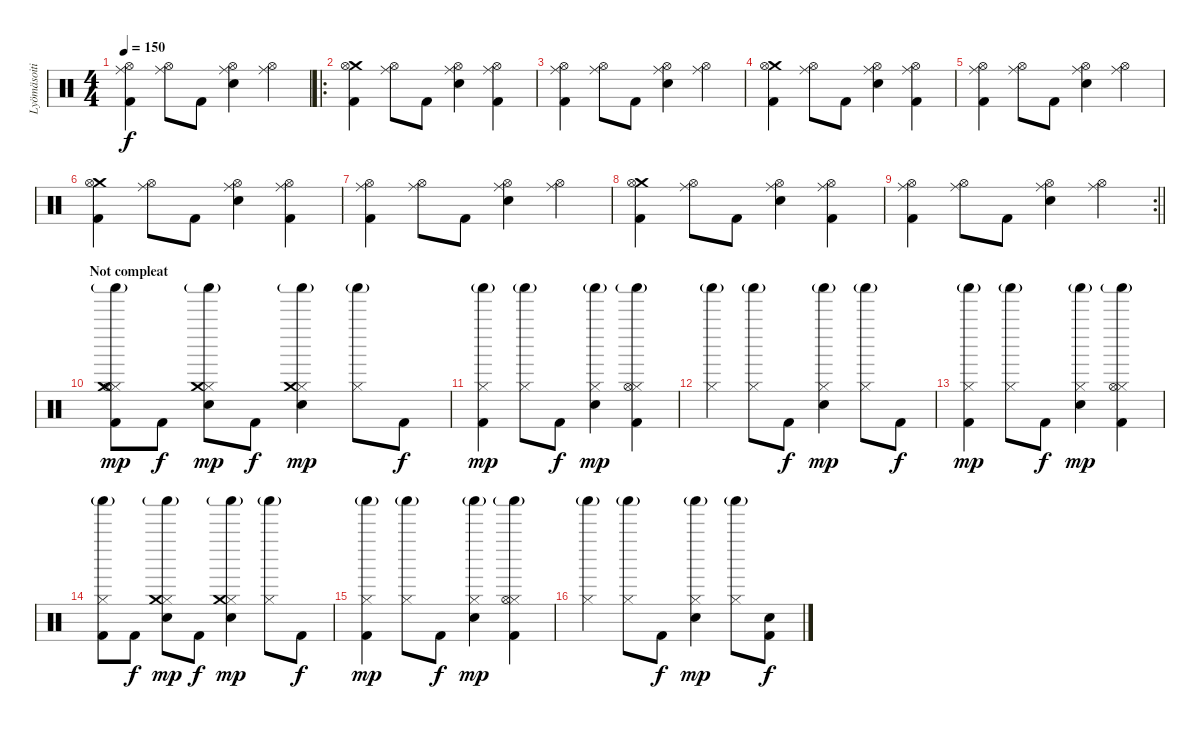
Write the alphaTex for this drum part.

\track ("Lyömäsoitin" "Lyömäsoiti") {instrument percussion}
\staff
\articulation defaults
\ts (4 4)
\tempo 150
\clef neutral
\ks c
("Ride (middle)" "Hi-Hat (open)" "Kick (hit) 2").4{dy f} ("Ride (middle)" "Hi-Hat (open)").8 "Kick (hit) 2".8 ("Ride (middle)" "Hi-Hat (open)" "Snare (hit) 2").4 ("Ride (middle)" "Hi-Hat (open)").4 |
\ro
("Crash medium (hit)" "Hi-Hat (open)" "Kick (hit) 2").4 ("Ride (middle)" "Hi-Hat (open)").8 "Kick (hit) 2".8 ("Ride (middle)" "Hi-Hat (open)" "Snare (hit) 2").4 ("Ride (middle)" "Hi-Hat (open)" "Kick (hit) 2").4 |
("Ride (middle)" "Hi-Hat (open)" "Kick (hit) 2").4 ("Ride (middle)" "Hi-Hat (open)").8 "Kick (hit) 2".8 ("Ride (middle)" "Hi-Hat (open)" "Snare (hit) 2").4 ("Ride (middle)" "Hi-Hat (open)").4 |
("Crash medium (hit)" "Hi-Hat (open)" "Kick (hit) 2").4 ("Ride (middle)" "Hi-Hat (open)").8 "Kick (hit) 2".8 ("Ride (middle)" "Hi-Hat (open)" "Snare (hit) 2").4 ("Ride (middle)" "Hi-Hat (open)" "Kick (hit) 2").4 |
("Ride (middle)" "Hi-Hat (open)" "Kick (hit) 2").4 ("Ride (middle)" "Hi-Hat (open)").8 "Kick (hit) 2".8 ("Ride (middle)" "Hi-Hat (open)" "Snare (hit) 2").4 ("Ride (middle)" "Hi-Hat (open)").4 |
("Crash medium (hit)" "Hi-Hat (open)" "Kick (hit) 2").4 ("Ride (middle)" "Hi-Hat (open)").8 "Kick (hit) 2".8 ("Ride (middle)" "Hi-Hat (open)" "Snare (hit) 2").4 ("Ride (middle)" "Hi-Hat (open)" "Kick (hit) 2").4 |
("Ride (middle)" "Hi-Hat (open)" "Kick (hit) 2").4 ("Ride (middle)" "Hi-Hat (open)").8 "Kick (hit) 2".8 ("Ride (middle)" "Hi-Hat (open)" "Snare (hit) 2").4 ("Ride (middle)" "Hi-Hat (open)").4 |
("Crash medium (hit)" "Hi-Hat (open)" "Kick (hit) 2").4 ("Ride (middle)" "Hi-Hat (open)").8 "Kick (hit) 2".8 ("Ride (middle)" "Hi-Hat (open)" "Snare (hit) 2").4 ("Ride (middle)" "Hi-Hat (open)" "Kick (hit) 2").4 |
\rc 2
\barLineRight lightlight
("Ride (middle)" "Hi-Hat (open)" "Kick (hit) 2").4 ("Ride (middle)" "Hi-Hat (open)").8 "Kick (hit) 2".8 ("Ride (middle)" "Hi-Hat (open)" "Snare (hit) 2").4 ("Ride (middle)" "Hi-Hat (open)").4 |
\section ("" "Not compleat")
("Hi-Hat (closed)" "Hi-Hat (open)" "Shaker (hit)"{g} "Crash medium (hit)" "Kick (hit) 2").8{dy mp} "Kick (hit) 2".8{dy f} ("Hi-Hat (closed)" "Snare (hit) 2" "Shaker (hit)"{g} "Crash medium (hit)").8{dy mp} "Kick (hit) 2".8{dy f} ("Hi-Hat (closed)" "Crash medium (hit)" "Snare (hit) 2" "Shaker (hit)"{g}).4{dy mp} ("Hi-Hat (closed)" "Shaker (hit)"{g}).8 "Kick (hit) 2".8{dy f} |
("Hi-Hat (closed)" "Shaker (hit)"{g} "Kick (hit) 2").4{dy mp} ("Hi-Hat (closed)" "Shaker (hit)"{g}).8 "Kick (hit) 2".8{dy f} ("Hi-Hat (closed)" "Snare (hit) 2" "Shaker (hit)"{g}).4{dy mp} ("Hi-Hat (closed)" "Hi-Hat (open)" "Shaker (hit)"{g} "Kick (hit) 2").4 |
("Hi-Hat (closed)" "Shaker (hit)"{g}).4 ("Hi-Hat (closed)" "Shaker (hit)"{g}).8 "Kick (hit) 2".8{dy f} ("Hi-Hat (closed)" "Snare (hit) 2" "Shaker (hit)"{g}).4{dy mp} ("Hi-Hat (closed)" "Shaker (hit)"{g}).8 "Kick (hit) 2".8{dy f} |
("Hi-Hat (closed)" "Shaker (hit)"{g} "Kick (hit) 2").4{dy mp} ("Hi-Hat (closed)" "Shaker (hit)"{g}).8 "Kick (hit) 2".8{dy f} ("Hi-Hat (closed)" "Snare (hit) 2" "Shaker (hit)"{g}).4{dy mp} ("Hi-Hat (closed)" "Hi-Hat (open)" "Shaker (hit)"{g} "Kick (hit) 2").4 |
("Hi-Hat (closed)" "Shaker (hit)"{g} "Kick (hit) 2").8 "Kick (hit) 2".8{dy f} ("Hi-Hat (closed)" "Snare (hit) 2" "Shaker (hit)"{g} "Crash medium (hit)").8{dy mp} "Kick (hit) 2".8{dy f} ("Hi-Hat (closed)" "Crash medium (hit)" "Snare (hit) 2" "Shaker (hit)"{g}).4{dy mp} ("Hi-Hat (closed)" "Shaker (hit)"{g}).8 "Kick (hit) 2".8{dy f} |
("Hi-Hat (closed)" "Shaker (hit)"{g} "Kick (hit) 2").4{dy mp} ("Hi-Hat (closed)" "Shaker (hit)"{g}).8 "Kick (hit) 2".8{dy f} ("Hi-Hat (closed)" "Snare (hit) 2" "Shaker (hit)"{g}).4{dy mp} ("Hi-Hat (closed)" "Hi-Hat (open)" "Shaker (hit)"{g} "Kick (hit) 2").4 |
("Hi-Hat (closed)" "Shaker (hit)"{g}).4 ("Hi-Hat (closed)" "Shaker (hit)"{g}).8 "Kick (hit) 2".8{dy f} ("Hi-Hat (closed)" "Snare (hit) 2" "Shaker (hit)"{g}).4{dy mp} ("Hi-Hat (closed)" "Shaker (hit)"{g}).8 ("Snare (hit) 2" "Kick (hit) 2").8{dy f}
